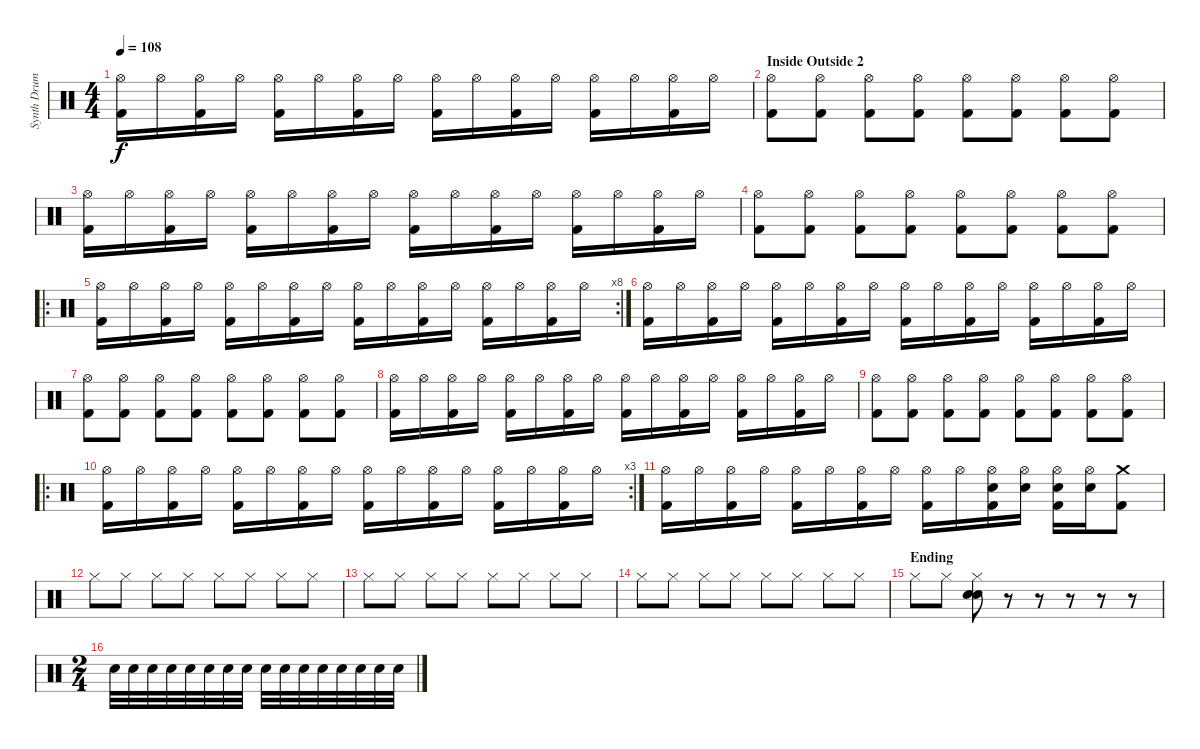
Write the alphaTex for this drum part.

\track ("Synth Drums && percs" "Synth Drum") {instrument percussion}
\staff {score}
\articulation defaults
\ts (4 4)
\tempo 108
\clef neutral
\ks c
("Hi-Hat (open)" "Kick (hit) 2").16{dy f} "Hi-Hat (open)".16 ("Hi-Hat (open)" "Kick (hit) 2").16 "Hi-Hat (open)".16 ("Hi-Hat (open)" "Kick (hit) 2").16 "Hi-Hat (open)".16 ("Hi-Hat (open)" "Kick (hit) 2").16 "Hi-Hat (open)".16 ("Hi-Hat (open)" "Kick (hit) 2").16 "Hi-Hat (open)".16 ("Hi-Hat (open)" "Kick (hit) 2").16 "Hi-Hat (open)".16 ("Hi-Hat (open)" "Kick (hit) 2").16 "Hi-Hat (open)".16 ("Hi-Hat (open)" "Kick (hit) 2").16 "Hi-Hat (open)".16 |
\section ("" "Inside Outside 2")
("Hi-Hat (open)" "Kick (hit) 2").8 ("Hi-Hat (open)" "Kick (hit) 2").8 ("Hi-Hat (open)" "Kick (hit) 2").8 ("Hi-Hat (open)" "Kick (hit) 2").8 ("Hi-Hat (open)" "Kick (hit) 2").8 ("Hi-Hat (open)" "Kick (hit) 2").8 ("Hi-Hat (open)" "Kick (hit) 2").8 ("Hi-Hat (open)" "Kick (hit) 2").8 |
("Hi-Hat (open)" "Kick (hit) 2").16 "Hi-Hat (open)".16 ("Hi-Hat (open)" "Kick (hit) 2").16 "Hi-Hat (open)".16 ("Hi-Hat (open)" "Kick (hit) 2").16 "Hi-Hat (open)".16 ("Hi-Hat (open)" "Kick (hit) 2").16 "Hi-Hat (open)".16 ("Hi-Hat (open)" "Kick (hit) 2").16 "Hi-Hat (open)".16 ("Hi-Hat (open)" "Kick (hit) 2").16 "Hi-Hat (open)".16 ("Hi-Hat (open)" "Kick (hit) 2").16 "Hi-Hat (open)".16 ("Hi-Hat (open)" "Kick (hit) 2").16 "Hi-Hat (open)".16 |
("Hi-Hat (open)" "Kick (hit) 2").8 ("Hi-Hat (open)" "Kick (hit) 2").8 ("Hi-Hat (open)" "Kick (hit) 2").8 ("Hi-Hat (open)" "Kick (hit) 2").8 ("Hi-Hat (open)" "Kick (hit) 2").8 ("Hi-Hat (open)" "Kick (hit) 2").8 ("Hi-Hat (open)" "Kick (hit) 2").8 ("Hi-Hat (open)" "Kick (hit) 2").8 |
\ro
\rc 8
("Hi-Hat (open)" "Kick (hit) 2").16 "Hi-Hat (open)".16 ("Hi-Hat (open)" "Kick (hit) 2").16 "Hi-Hat (open)".16 ("Hi-Hat (open)" "Kick (hit) 2").16 "Hi-Hat (open)".16 ("Hi-Hat (open)" "Kick (hit) 2").16 "Hi-Hat (open)".16 ("Hi-Hat (open)" "Kick (hit) 2").16 "Hi-Hat (open)".16 ("Hi-Hat (open)" "Kick (hit) 2").16 "Hi-Hat (open)".16 ("Hi-Hat (open)" "Kick (hit) 2").16 "Hi-Hat (open)".16 ("Hi-Hat (open)" "Kick (hit) 2").16 "Hi-Hat (open)".16 |
("Hi-Hat (open)" "Kick (hit) 2").16 "Hi-Hat (open)".16 ("Hi-Hat (open)" "Kick (hit) 2").16 "Hi-Hat (open)".16 ("Hi-Hat (open)" "Kick (hit) 2").16 "Hi-Hat (open)".16 ("Hi-Hat (open)" "Kick (hit) 2").16 "Hi-Hat (open)".16 ("Hi-Hat (open)" "Kick (hit) 2").16 "Hi-Hat (open)".16 ("Hi-Hat (open)" "Kick (hit) 2").16 "Hi-Hat (open)".16 ("Hi-Hat (open)" "Kick (hit) 2").16 "Hi-Hat (open)".16 ("Hi-Hat (open)" "Kick (hit) 2").16 "Hi-Hat (open)".16 |
("Hi-Hat (open)" "Kick (hit) 2").8 ("Hi-Hat (open)" "Kick (hit) 2").8 ("Hi-Hat (open)" "Kick (hit) 2").8 ("Hi-Hat (open)" "Kick (hit) 2").8 ("Hi-Hat (open)" "Kick (hit) 2").8 ("Hi-Hat (open)" "Kick (hit) 2").8 ("Hi-Hat (open)" "Kick (hit) 2").8 ("Hi-Hat (open)" "Kick (hit) 2").8 |
("Hi-Hat (open)" "Kick (hit) 2").16 "Hi-Hat (open)".16 ("Hi-Hat (open)" "Kick (hit) 2").16 "Hi-Hat (open)".16 ("Hi-Hat (open)" "Kick (hit) 2").16 "Hi-Hat (open)".16 ("Hi-Hat (open)" "Kick (hit) 2").16 "Hi-Hat (open)".16 ("Hi-Hat (open)" "Kick (hit) 2").16 "Hi-Hat (open)".16 ("Hi-Hat (open)" "Kick (hit) 2").16 "Hi-Hat (open)".16 ("Hi-Hat (open)" "Kick (hit) 2").16 "Hi-Hat (open)".16 ("Hi-Hat (open)" "Kick (hit) 2").16 "Hi-Hat (open)".16 |
("Hi-Hat (open)" "Kick (hit) 2").8 ("Hi-Hat (open)" "Kick (hit) 2").8 ("Hi-Hat (open)" "Kick (hit) 2").8 ("Hi-Hat (open)" "Kick (hit) 2").8 ("Hi-Hat (open)" "Kick (hit) 2").8 ("Hi-Hat (open)" "Kick (hit) 2").8 ("Hi-Hat (open)" "Kick (hit) 2").8 ("Hi-Hat (open)" "Kick (hit) 2").8 |
\ro
\rc 3
("Hi-Hat (open)" "Kick (hit) 2").16 "Hi-Hat (open)".16 ("Hi-Hat (open)" "Kick (hit) 2").16 "Hi-Hat (open)".16 ("Hi-Hat (open)" "Kick (hit) 2").16 "Hi-Hat (open)".16 ("Hi-Hat (open)" "Kick (hit) 2").16 "Hi-Hat (open)".16 ("Hi-Hat (open)" "Kick (hit) 2").16 "Hi-Hat (open)".16 ("Hi-Hat (open)" "Kick (hit) 2").16 "Hi-Hat (open)".16 ("Hi-Hat (open)" "Kick (hit) 2").16 "Hi-Hat (open)".16 ("Hi-Hat (open)" "Kick (hit) 2").16 "Hi-Hat (open)".16 |
("Hi-Hat (open)" "Kick (hit) 2").16 "Hi-Hat (open)".16 ("Hi-Hat (open)" "Kick (hit) 2").16 "Hi-Hat (open)".16 ("Hi-Hat (open)" "Kick (hit) 2").16 "Hi-Hat (open)".16 ("Hi-Hat (open)" "Kick (hit) 2").16 "Hi-Hat (open)".16 ("Hi-Hat (open)" "Kick (hit) 2").16 "Hi-Hat (open)".16 ("Hi-Hat (open)" "Snare (hit) 2" "Kick (hit) 2").16 ("Hi-Hat (open)" "Snare (hit) 2").16 ("Hi-Hat (open)" "Snare (hit) 2" "Kick (hit) 2").16 ("Hi-Hat (open)" "Snare (hit) 2").16 ("Crash medium (hit)" "Kick (hit) 2").8 |
"Hi-Hat (closed)".8 "Hi-Hat (closed)".8 "Hi-Hat (closed)".8 "Hi-Hat (closed)".8 "Hi-Hat (closed)".8 "Hi-Hat (closed)".8 "Hi-Hat (closed)".8 "Hi-Hat (closed)".8 |
"Hi-Hat (closed)".8 "Hi-Hat (closed)".8 "Hi-Hat (closed)".8 "Hi-Hat (closed)".8 "Hi-Hat (closed)".8 "Hi-Hat (closed)".8 "Hi-Hat (closed)".8 "Hi-Hat (closed)".8 |
"Hi-Hat (closed)".8 "Hi-Hat (closed)".8 "Hi-Hat (closed)".8 "Hi-Hat (closed)".8 "Hi-Hat (closed)".8 "Hi-Hat (closed)".8 "Hi-Hat (closed)".8 "Hi-Hat (closed)".8 |
\section ("" "Ending")
"Hi-Hat (closed)".8 "Hi-Hat (closed)".8 ("Hi-Hat (closed)" "Hand Clap (hit)" "Snare (hit) 2").8 r.8 r.8 r.8 r.8 r.8 |
\ts (2 4)
"Snare (hit) 2".32 "Snare (hit) 2".32 "Snare (hit) 2".32 "Snare (hit) 2".32 "Snare (hit) 2".32 "Snare (hit) 2".32 "Snare (hit) 2".32 "Snare (hit) 2".32 "Snare (hit) 2".32 "Snare (hit) 2".32 "Snare (hit) 2".32 "Snare (hit) 2".32 "Snare (hit) 2".32 "Snare (hit) 2".32 "Snare (hit) 2".32 "Snare (hit) 2".32
